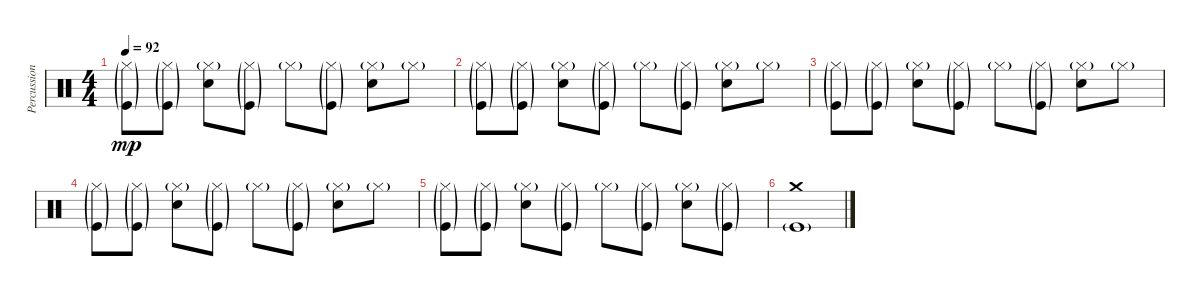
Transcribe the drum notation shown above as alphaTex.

\track ("Percussions" "Percussion") {instrument percussion}
\staff {score}
\articulation defaults
\ts (4 4)
\tempo 92
\clef neutral
\ks c
("Hi-Hat (closed)"{g} "Kick (hit)"{g}).8{dy mp} ("Hi-Hat (closed)"{g} "Kick (hit)"{g}).8 ("Hi-Hat (closed)"{g} "Snare (hit) 2").8 ("Hi-Hat (closed)"{g} "Kick (hit)"{g}).8 "Hi-Hat (closed)"{g}.8 ("Hi-Hat (closed)"{g} "Kick (hit)"{g}).8 ("Hi-Hat (closed)"{g} "Snare (hit) 2").8 "Hi-Hat (closed)"{g}.8 |
("Hi-Hat (closed)"{g} "Kick (hit)"{g}).8 ("Hi-Hat (closed)"{g} "Kick (hit)"{g}).8 ("Hi-Hat (closed)"{g} "Snare (hit) 2").8 ("Hi-Hat (closed)"{g} "Kick (hit)"{g}).8 "Hi-Hat (closed)"{g}.8 ("Hi-Hat (closed)"{g} "Kick (hit)"{g}).8 ("Hi-Hat (closed)"{g} "Snare (hit) 2").8 "Hi-Hat (closed)"{g}.8 |
("Hi-Hat (closed)"{g} "Kick (hit)"{g}).8 ("Hi-Hat (closed)"{g} "Kick (hit)"{g}).8 ("Hi-Hat (closed)"{g} "Snare (hit) 2").8 ("Hi-Hat (closed)"{g} "Kick (hit)"{g}).8 "Hi-Hat (closed)"{g}.8 ("Hi-Hat (closed)"{g} "Kick (hit)"{g}).8 ("Hi-Hat (closed)"{g} "Snare (hit) 2").8 "Hi-Hat (closed)"{g}.8 |
("Hi-Hat (closed)"{g} "Kick (hit)"{g}).8 ("Hi-Hat (closed)"{g} "Kick (hit)"{g}).8 ("Hi-Hat (closed)"{g} "Snare (hit) 2").8 ("Hi-Hat (closed)"{g} "Kick (hit)"{g}).8 "Hi-Hat (closed)"{g}.8 ("Hi-Hat (closed)"{g} "Kick (hit)"{g}).8 ("Hi-Hat (closed)"{g} "Snare (hit) 2").8 "Hi-Hat (closed)"{g}.8 |
("Hi-Hat (closed)"{g} "Kick (hit)"{g}).8 ("Hi-Hat (closed)"{g} "Kick (hit)"{g}).8 ("Hi-Hat (closed)"{g} "Snare (hit) 2").8 ("Hi-Hat (closed)"{g} "Kick (hit)"{g}).8 "Hi-Hat (closed)"{g}.8 ("Hi-Hat (closed)"{g} "Kick (hit)"{g}).8 ("Hi-Hat (closed)"{g} "Snare (hit) 2").8 ("Hi-Hat (closed)"{g} "Kick (hit)"{g}).8 |
("Crash medium (hit)" "Kick (hit)"{g}).1
